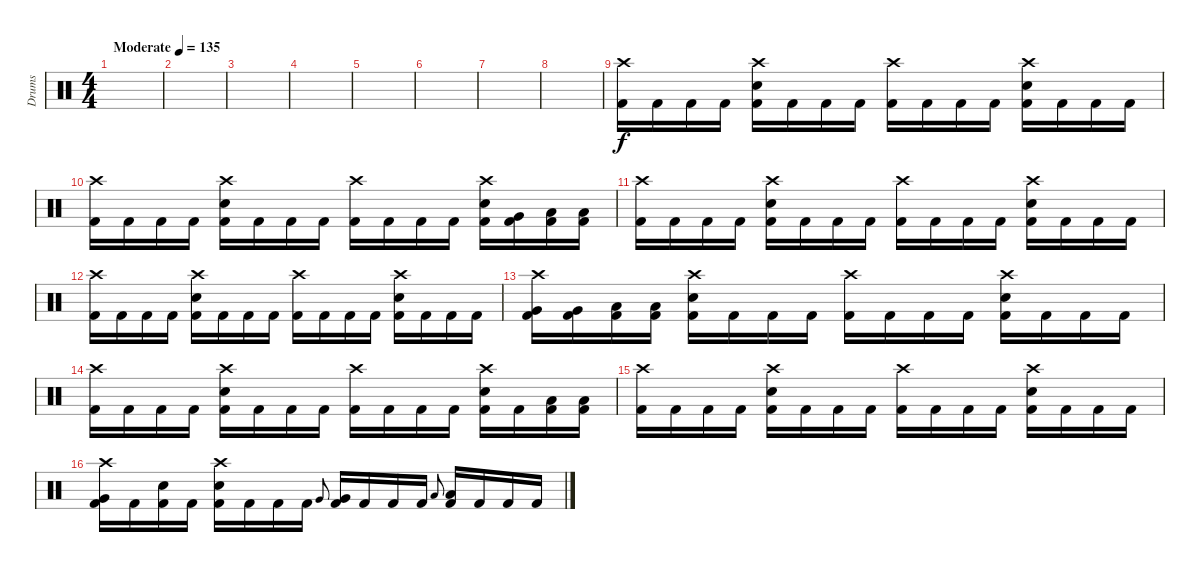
\track ("Drums" "Drums") {instrument percussion}
\staff {score}
\articulation defaults
\ts (4 4)
\tempo (135 "Moderate")
\clef neutral
\ks c
|
|
|
|
|
|
|
|
("Crash high (hit)" "Kick (hit) 2").16 "Kick (hit) 2".16 "Kick (hit) 2".16 "Kick (hit) 2".16 ("Crash high (hit)" "Kick (hit) 2" "Electric Snare (hit)").16 "Kick (hit) 2".16 "Kick (hit) 2".16 "Kick (hit) 2".16 ("Crash high (hit)" "Kick (hit) 2").16 "Kick (hit) 2".16 "Kick (hit) 2".16 "Kick (hit) 2".16 ("Crash high (hit)" "Kick (hit) 2" "Electric Snare (hit)").16 "Kick (hit) 2".16 "Kick (hit) 2".16 "Kick (hit) 2".16 |
("Crash high (hit)" "Kick (hit) 2").16 "Kick (hit) 2".16 "Kick (hit) 2".16 "Kick (hit) 2".16 ("Crash high (hit)" "Kick (hit) 2" "Electric Snare (hit)").16 "Kick (hit) 2".16 "Kick (hit) 2".16 "Kick (hit) 2".16 ("Crash high (hit)" "Kick (hit) 2").16 "Kick (hit) 2".16 "Kick (hit) 2".16 "Kick (hit) 2".16 ("Crash high (hit)" "Kick (hit) 2" "Electric Snare (hit)").16 ("Kick (hit) 2" "Very Low Tom (hit)").16 ("Kick (hit) 2" "Low Floor Tom (hit)").16 ("Kick (hit) 2" "Low Floor Tom (hit)").16 |
("Crash high (hit)" "Kick (hit) 2").16 "Kick (hit) 2".16 "Kick (hit) 2".16 "Kick (hit) 2".16 ("Crash high (hit)" "Kick (hit) 2" "Electric Snare (hit)").16 "Kick (hit) 2".16 "Kick (hit) 2".16 "Kick (hit) 2".16 ("Crash high (hit)" "Kick (hit) 2").16 "Kick (hit) 2".16 "Kick (hit) 2".16 "Kick (hit) 2".16 ("Crash high (hit)" "Kick (hit) 2" "Electric Snare (hit)").16 "Kick (hit) 2".16 "Kick (hit) 2".16 "Kick (hit) 2".16 |
("Crash high (hit)" "Kick (hit) 2").16 "Kick (hit) 2".16 "Kick (hit) 2".16 "Kick (hit) 2".16 ("Crash high (hit)" "Kick (hit) 2" "Electric Snare (hit)").16 "Kick (hit) 2".16 "Kick (hit) 2".16 "Kick (hit) 2".16 ("Crash high (hit)" "Kick (hit) 2").16 "Kick (hit) 2".16 "Kick (hit) 2".16 "Kick (hit) 2".16 ("Crash high (hit)" "Kick (hit) 2" "Electric Snare (hit)").16 "Kick (hit) 2".16 "Kick (hit) 2".16 "Kick (hit) 2".16 |
("Crash high (hit)" "Kick (hit) 2" "Very Low Tom (hit)").16 ("Kick (hit) 2" "Very Low Tom (hit)").16 ("Kick (hit) 2" "Low Floor Tom (hit)").16 ("Kick (hit) 2" "Low Floor Tom (hit)").16 ("Crash high (hit)" "Kick (hit) 2" "Electric Snare (hit)").16 "Kick (hit) 2".16 "Kick (hit) 2".16 "Kick (hit) 2".16 ("Crash high (hit)" "Kick (hit) 2").16 "Kick (hit) 2".16 "Kick (hit) 2".16 "Kick (hit) 2".16 ("Crash high (hit)" "Kick (hit) 2" "Electric Snare (hit)").16 "Kick (hit) 2".16 "Kick (hit) 2".16 "Kick (hit) 2".16 |
("Crash high (hit)" "Kick (hit) 2").16 "Kick (hit) 2".16 "Kick (hit) 2".16 "Kick (hit) 2".16 ("Crash high (hit)" "Kick (hit) 2" "Electric Snare (hit)").16 "Kick (hit) 2".16 "Kick (hit) 2".16 "Kick (hit) 2".16 ("Crash high (hit)" "Kick (hit) 2").16 "Kick (hit) 2".16 "Kick (hit) 2".16 "Kick (hit) 2".16 ("Crash high (hit)" "Kick (hit) 2" "Electric Snare (hit)").16 "Kick (hit) 2".16 ("Kick (hit) 2" "Low Floor Tom (hit)").16 ("Kick (hit) 2" "Low Floor Tom (hit)").16 |
("Crash high (hit)" "Kick (hit) 2").16 "Kick (hit) 2".16 "Kick (hit) 2".16 "Kick (hit) 2".16 ("Crash high (hit)" "Kick (hit) 2" "Electric Snare (hit)").16 "Kick (hit) 2".16 "Kick (hit) 2".16 "Kick (hit) 2".16 ("Crash high (hit)" "Kick (hit) 2").16 "Kick (hit) 2".16 "Kick (hit) 2".16 "Kick (hit) 2".16 ("Crash high (hit)" "Kick (hit) 2" "Electric Snare (hit)").16 "Kick (hit) 2".16 "Kick (hit) 2".16 "Kick (hit) 2".16 |
("Crash high (hit)" "Kick (hit) 2" "Very Low Tom (hit)").16 "Kick (hit) 2".16 ("Kick (hit) 2" "Electric Snare (hit)").16 "Kick (hit) 2".16 ("Crash high (hit)" "Kick (hit) 2" "Electric Snare (hit)").16 "Kick (hit) 2".16 "Kick (hit) 2".16 "Kick (hit) 2".16 "Very Low Tom (hit)".8{gr onbeat} ("Kick (hit) 2" "Very Low Tom (hit)").16 "Kick (hit) 2".16 "Kick (hit) 2".16 "Kick (hit) 2".16 "Low Floor Tom (hit)".8{gr onbeat} ("Kick (hit) 2" "Low Floor Tom (hit)").16 "Kick (hit) 2".16 "Kick (hit) 2".16 "Kick (hit) 2".16
